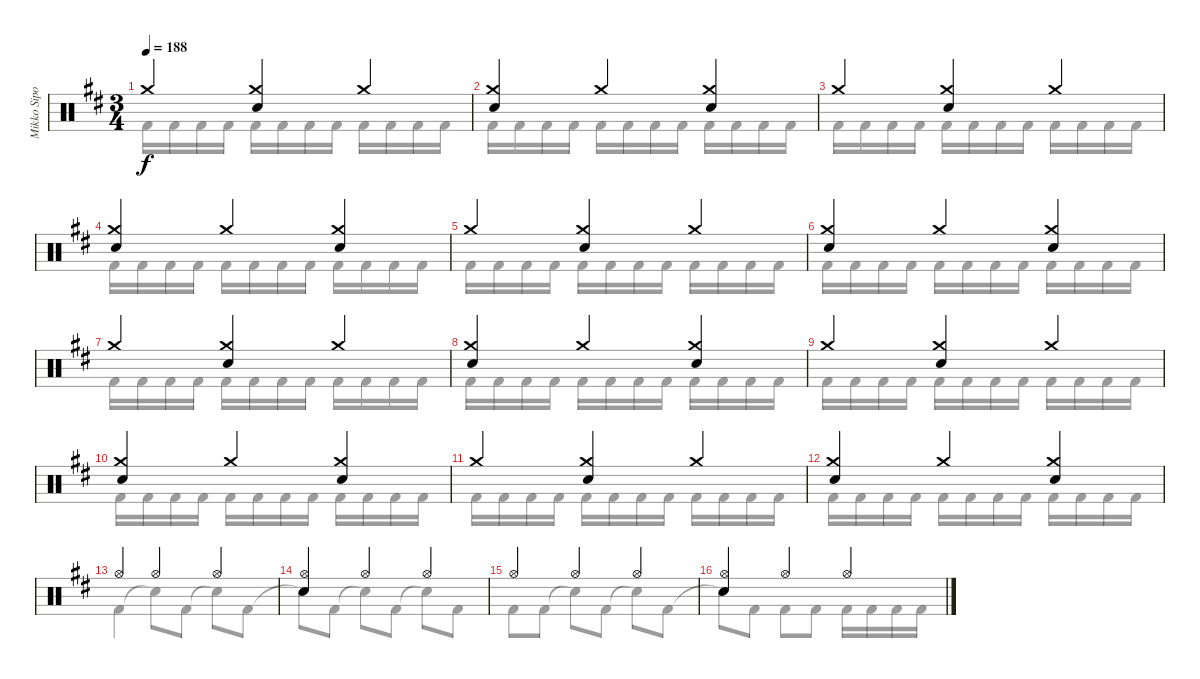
\track ("Mikko Sipola (drums)" "Mikko Sipo") {instrument percussion}
\staff {score}
\articulation defaults
\voice
\ts (3 4)
\tempo 188
\clef neutral
\ks bminor "Crash medium (hit)".4{dy f}
("Crash medium (hit)" "Electric Snare (hit)").4 "Crash medium (hit)".4 |
("Crash medium (hit)" "Electric Snare (hit)").4 "Crash medium (hit)".4 ("Crash medium (hit)" "Electric Snare (hit)").4 |
"Crash medium (hit)".4 ("Crash medium (hit)" "Electric Snare (hit)").4 "Crash medium (hit)".4 |
("Crash medium (hit)" "Electric Snare (hit)").4 "Crash medium (hit)".4 ("Crash medium (hit)" "Electric Snare (hit)").4 |
"Crash medium (hit)".4 ("Crash medium (hit)" "Electric Snare (hit)").4 "Crash medium (hit)".4 |
("Crash medium (hit)" "Electric Snare (hit)").4 "Crash medium (hit)".4 ("Crash medium (hit)" "Electric Snare (hit)").4 |
"Crash medium (hit)".4 ("Crash medium (hit)" "Electric Snare (hit)").4 "Crash medium (hit)".4 |
("Crash medium (hit)" "Electric Snare (hit)").4 "Crash medium (hit)".4 ("Crash medium (hit)" "Electric Snare (hit)").4 |
"Crash medium (hit)".4 ("Crash medium (hit)" "Electric Snare (hit)").4 "Crash medium (hit)".4 |
("Crash medium (hit)" "Electric Snare (hit)").4 "Crash medium (hit)".4 ("Crash medium (hit)" "Electric Snare (hit)").4 |
"Crash medium (hit)".4 ("Crash medium (hit)" "Electric Snare (hit)").4 "Crash medium (hit)".4 |
("Crash medium (hit)" "Electric Snare (hit)").4 "Crash medium (hit)".4 ("Crash medium (hit)" "Electric Snare (hit)").4 |
"Hi-Hat (open)".4 "Hi-Hat (open)".4 "Hi-Hat (open)".4 |
("Hi-Hat (open)" "Electric Snare (hit)").4 "Hi-Hat (open)".4 "Hi-Hat (open)".4 |
"Hi-Hat (open)".4 "Hi-Hat (open)".4 "Hi-Hat (open)".4 |
("Hi-Hat (open)" "Electric Snare (hit)").4 "Hi-Hat (open)".4 "Hi-Hat (open)".4
\voice
\clef neutral
\ottava regular
\simile none
\ks bminor "Kick (hit) 2".16{dy f} "Kick (hit) 2".16 "Kick (hit) 2".16 "Kick (hit) 2".16 "Kick (hit) 2".16 "Kick (hit) 2".16 "Kick (hit) 2".16 "Kick (hit) 2".16 "Kick (hit) 2".16 "Kick (hit) 2".16 "Kick (hit) 2".16 "Kick (hit) 2".16
|
"Kick (hit) 2".16 "Kick (hit) 2".16 "Kick (hit) 2".16 "Kick (hit) 2".16 "Kick (hit) 2".16 "Kick (hit) 2".16 "Kick (hit) 2".16 "Kick (hit) 2".16 "Kick (hit) 2".16 "Kick (hit) 2".16 "Kick (hit) 2".16 "Kick (hit) 2".16 |
"Kick (hit) 2".16 "Kick (hit) 2".16 "Kick (hit) 2".16 "Kick (hit) 2".16 "Kick (hit) 2".16 "Kick (hit) 2".16 "Kick (hit) 2".16 "Kick (hit) 2".16 "Kick (hit) 2".16 "Kick (hit) 2".16 "Kick (hit) 2".16 "Kick (hit) 2".16 |
"Kick (hit) 2".16 "Kick (hit) 2".16 "Kick (hit) 2".16 "Kick (hit) 2".16 "Kick (hit) 2".16 "Kick (hit) 2".16 "Kick (hit) 2".16 "Kick (hit) 2".16 "Kick (hit) 2".16 "Kick (hit) 2".16 "Kick (hit) 2".16 "Kick (hit) 2".16 |
"Kick (hit) 2".16 "Kick (hit) 2".16 "Kick (hit) 2".16 "Kick (hit) 2".16 "Kick (hit) 2".16 "Kick (hit) 2".16 "Kick (hit) 2".16 "Kick (hit) 2".16 "Kick (hit) 2".16 "Kick (hit) 2".16 "Kick (hit) 2".16 "Kick (hit) 2".16 |
"Kick (hit) 2".16 "Kick (hit) 2".16 "Kick (hit) 2".16 "Kick (hit) 2".16 "Kick (hit) 2".16 "Kick (hit) 2".16 "Kick (hit) 2".16 "Kick (hit) 2".16 "Kick (hit) 2".16 "Kick (hit) 2".16 "Kick (hit) 2".16 "Kick (hit) 2".16 |
"Kick (hit) 2".16 "Kick (hit) 2".16 "Kick (hit) 2".16 "Kick (hit) 2".16 "Kick (hit) 2".16 "Kick (hit) 2".16 "Kick (hit) 2".16 "Kick (hit) 2".16 "Kick (hit) 2".16 "Kick (hit) 2".16 "Kick (hit) 2".16 "Kick (hit) 2".16 |
"Kick (hit) 2".16 "Kick (hit) 2".16 "Kick (hit) 2".16 "Kick (hit) 2".16 "Kick (hit) 2".16 "Kick (hit) 2".16 "Kick (hit) 2".16 "Kick (hit) 2".16 "Kick (hit) 2".16 "Kick (hit) 2".16 "Kick (hit) 2".16 "Kick (hit) 2".16 |
"Kick (hit) 2".16 "Kick (hit) 2".16 "Kick (hit) 2".16 "Kick (hit) 2".16 "Kick (hit) 2".16 "Kick (hit) 2".16 "Kick (hit) 2".16 "Kick (hit) 2".16 "Kick (hit) 2".16 "Kick (hit) 2".16 "Kick (hit) 2".16 "Kick (hit) 2".16 |
"Kick (hit) 2".16 "Kick (hit) 2".16 "Kick (hit) 2".16 "Kick (hit) 2".16 "Kick (hit) 2".16 "Kick (hit) 2".16 "Kick (hit) 2".16 "Kick (hit) 2".16 "Kick (hit) 2".16 "Kick (hit) 2".16 "Kick (hit) 2".16 "Kick (hit) 2".16 |
"Kick (hit) 2".16 "Kick (hit) 2".16 "Kick (hit) 2".16 "Kick (hit) 2".16 "Kick (hit) 2".16 "Kick (hit) 2".16 "Kick (hit) 2".16 "Kick (hit) 2".16 "Kick (hit) 2".16 "Kick (hit) 2".16 "Kick (hit) 2".16 "Kick (hit) 2".16 |
"Kick (hit) 2".16 "Kick (hit) 2".16 "Kick (hit) 2".16 "Kick (hit) 2".16 "Kick (hit) 2".16 "Kick (hit) 2".16 "Kick (hit) 2".16 "Kick (hit) 2".16 "Kick (hit) 2".16 "Kick (hit) 2".16 "Kick (hit) 2".16 "Kick (hit) 2".16 |
"Kick (hit) 2".4 "Snare (hit)"{t}.8 "Kick (hit) 2".8 "Snare (hit)"{t}.8 "Kick (hit) 2".8 |
"Snare (hit)"{t}.8 "Kick (hit) 2".8 "Snare (hit)"{t}.8 "Kick (hit) 2".8 "Snare (hit)"{t}.8 "Kick (hit) 2".8 |
"Kick (hit) 2".8 "Kick (hit) 2".8 "Snare (hit)"{t}.8 "Kick (hit) 2".8 "Snare (hit)"{t}.8 "Kick (hit) 2".8 |
"Snare (hit)"{t}.8 "Kick (hit) 2".8 "Kick (hit) 2".8 "Kick (hit) 2".8 "Kick (hit) 2".16 "Kick (hit) 2".16 "Kick (hit) 2".16 "Kick (hit) 2".16
